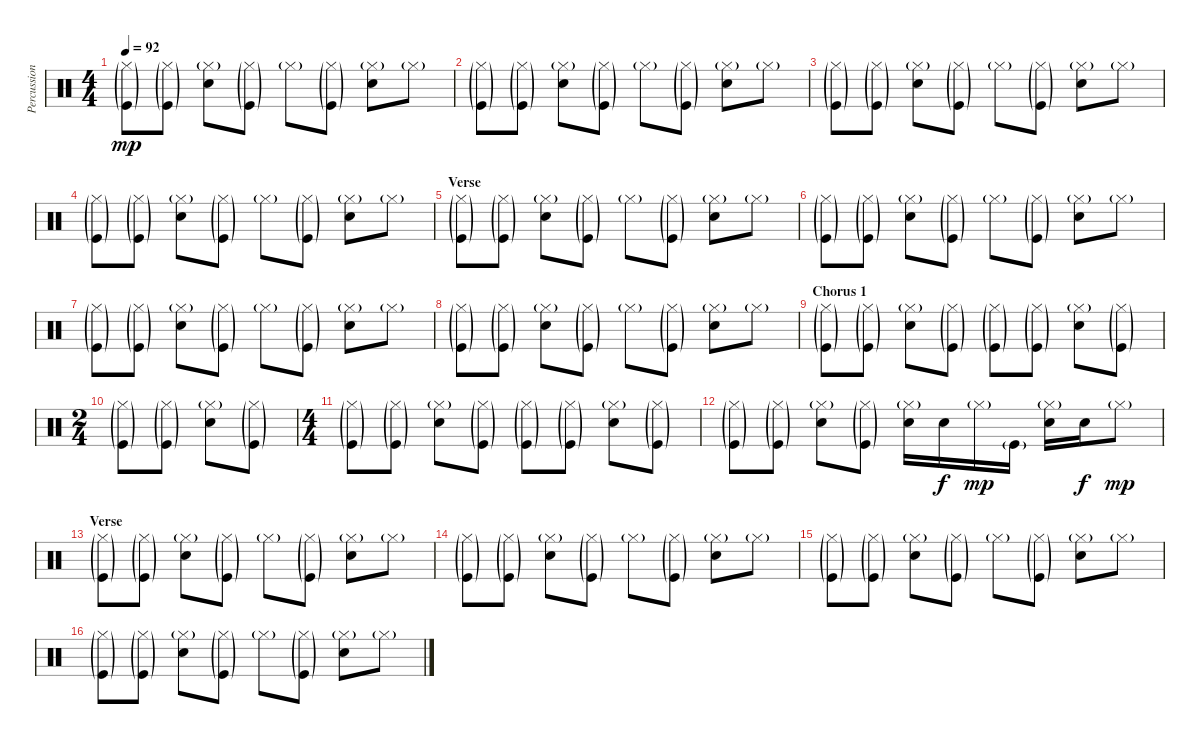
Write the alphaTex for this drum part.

\track ("Percussions" "Percussion") {instrument percussion}
\staff {score}
\articulation defaults
\ts (4 4)
\tempo 92
\clef neutral
\ks c
("Hi-Hat (closed)"{g} "Kick (hit)"{g}).8{dy mp} ("Hi-Hat (closed)"{g} "Kick (hit)"{g}).8 ("Hi-Hat (closed)"{g} "Snare (hit) 2").8 ("Hi-Hat (closed)"{g} "Kick (hit)"{g}).8 "Hi-Hat (closed)"{g}.8 ("Hi-Hat (closed)"{g} "Kick (hit)"{g}).8 ("Hi-Hat (closed)"{g} "Snare (hit) 2").8 "Hi-Hat (closed)"{g}.8 |
("Hi-Hat (closed)"{g} "Kick (hit)"{g}).8 ("Hi-Hat (closed)"{g} "Kick (hit)"{g}).8 ("Hi-Hat (closed)"{g} "Snare (hit) 2").8 ("Hi-Hat (closed)"{g} "Kick (hit)"{g}).8 "Hi-Hat (closed)"{g}.8 ("Hi-Hat (closed)"{g} "Kick (hit)"{g}).8 ("Hi-Hat (closed)"{g} "Snare (hit) 2").8 "Hi-Hat (closed)"{g}.8 |
("Hi-Hat (closed)"{g} "Kick (hit)"{g}).8 ("Hi-Hat (closed)"{g} "Kick (hit)"{g}).8 ("Hi-Hat (closed)"{g} "Snare (hit) 2").8 ("Hi-Hat (closed)"{g} "Kick (hit)"{g}).8 "Hi-Hat (closed)"{g}.8 ("Hi-Hat (closed)"{g} "Kick (hit)"{g}).8 ("Hi-Hat (closed)"{g} "Snare (hit) 2").8 "Hi-Hat (closed)"{g}.8 |
("Hi-Hat (closed)"{g} "Kick (hit)"{g}).8 ("Hi-Hat (closed)"{g} "Kick (hit)"{g}).8 ("Hi-Hat (closed)"{g} "Snare (hit) 2").8 ("Hi-Hat (closed)"{g} "Kick (hit)"{g}).8 "Hi-Hat (closed)"{g}.8 ("Hi-Hat (closed)"{g} "Kick (hit)"{g}).8 ("Hi-Hat (closed)"{g} "Snare (hit) 2").8 "Hi-Hat (closed)"{g}.8 |
\section ("" "Verse")
("Hi-Hat (closed)"{g} "Kick (hit)"{g}).8 ("Hi-Hat (closed)"{g} "Kick (hit)"{g}).8 ("Hi-Hat (closed)"{g} "Snare (hit) 2").8 ("Hi-Hat (closed)"{g} "Kick (hit)"{g}).8 "Hi-Hat (closed)"{g}.8 ("Hi-Hat (closed)"{g} "Kick (hit)"{g}).8 ("Hi-Hat (closed)"{g} "Snare (hit) 2").8 "Hi-Hat (closed)"{g}.8 |
("Hi-Hat (closed)"{g} "Kick (hit)"{g}).8 ("Hi-Hat (closed)"{g} "Kick (hit)"{g}).8 ("Hi-Hat (closed)"{g} "Snare (hit) 2").8 ("Hi-Hat (closed)"{g} "Kick (hit)"{g}).8 "Hi-Hat (closed)"{g}.8 ("Hi-Hat (closed)"{g} "Kick (hit)"{g}).8 ("Hi-Hat (closed)"{g} "Snare (hit) 2").8 "Hi-Hat (closed)"{g}.8 |
("Hi-Hat (closed)"{g} "Kick (hit)"{g}).8 ("Hi-Hat (closed)"{g} "Kick (hit)"{g}).8 ("Hi-Hat (closed)"{g} "Snare (hit) 2").8 ("Hi-Hat (closed)"{g} "Kick (hit)"{g}).8 "Hi-Hat (closed)"{g}.8 ("Hi-Hat (closed)"{g} "Kick (hit)"{g}).8 ("Hi-Hat (closed)"{g} "Snare (hit) 2").8 "Hi-Hat (closed)"{g}.8 |
("Hi-Hat (closed)"{g} "Kick (hit)"{g}).8 ("Hi-Hat (closed)"{g} "Kick (hit)"{g}).8 ("Hi-Hat (closed)"{g} "Snare (hit) 2").8 ("Hi-Hat (closed)"{g} "Kick (hit)"{g}).8 "Hi-Hat (closed)"{g}.8 ("Hi-Hat (closed)"{g} "Kick (hit)"{g}).8 ("Hi-Hat (closed)"{g} "Snare (hit) 2").8 "Hi-Hat (closed)"{g}.8 |
\section ("" "Chorus 1")
("Hi-Hat (closed)"{g} "Kick (hit)"{g}).8 ("Hi-Hat (closed)"{g} "Kick (hit)"{g}).8 ("Hi-Hat (closed)"{g} "Snare (hit) 2").8 ("Hi-Hat (closed)"{g} "Kick (hit)"{g}).8 ("Hi-Hat (closed)"{g} "Kick (hit)"{g}).8 ("Hi-Hat (closed)"{g} "Kick (hit)"{g}).8 ("Hi-Hat (closed)"{g} "Snare (hit) 2").8 ("Hi-Hat (closed)"{g} "Kick (hit)"{g}).8 |
\ts (2 4)
("Hi-Hat (closed)"{g} "Kick (hit)"{g}).8 ("Hi-Hat (closed)"{g} "Kick (hit)"{g}).8 ("Hi-Hat (closed)"{g} "Snare (hit) 2").8 ("Hi-Hat (closed)"{g} "Kick (hit)"{g}).8 |
\ts (4 4)
("Hi-Hat (closed)"{g} "Kick (hit)"{g}).8 ("Hi-Hat (closed)"{g} "Kick (hit)"{g}).8 ("Hi-Hat (closed)"{g} "Snare (hit) 2").8 ("Hi-Hat (closed)"{g} "Kick (hit)"{g}).8 ("Hi-Hat (closed)"{g} "Kick (hit)"{g}).8 ("Hi-Hat (closed)"{g} "Kick (hit)"{g}).8 ("Hi-Hat (closed)"{g} "Snare (hit) 2").8 ("Hi-Hat (closed)"{g} "Kick (hit)"{g}).8 |
("Hi-Hat (closed)"{g} "Kick (hit)"{g}).8 ("Hi-Hat (closed)"{g} "Kick (hit)"{g}).8 ("Hi-Hat (closed)"{g} "Snare (hit) 2").8 ("Hi-Hat (closed)"{g} "Kick (hit)"{g}).8 ("Hi-Hat (closed)"{g} "Snare (hit) 2").16 "Snare (hit) 2".16{dy f} "Hi-Hat (closed)"{g}.16{dy mp} "Kick (hit)"{g}.16 ("Hi-Hat (closed)"{g} "Snare (hit) 2").16 "Snare (hit) 2".16{dy f} "Hi-Hat (closed)"{g}.8{dy mp} |
\section ("" "Verse")
("Hi-Hat (closed)"{g} "Kick (hit)"{g}).8 ("Hi-Hat (closed)"{g} "Kick (hit)"{g}).8 ("Hi-Hat (closed)"{g} "Snare (hit) 2").8 ("Hi-Hat (closed)"{g} "Kick (hit)"{g}).8 "Hi-Hat (closed)"{g}.8 ("Hi-Hat (closed)"{g} "Kick (hit)"{g}).8 ("Hi-Hat (closed)"{g} "Snare (hit) 2").8 "Hi-Hat (closed)"{g}.8 |
("Hi-Hat (closed)"{g} "Kick (hit)"{g}).8 ("Hi-Hat (closed)"{g} "Kick (hit)"{g}).8 ("Hi-Hat (closed)"{g} "Snare (hit) 2").8 ("Hi-Hat (closed)"{g} "Kick (hit)"{g}).8 "Hi-Hat (closed)"{g}.8 ("Hi-Hat (closed)"{g} "Kick (hit)"{g}).8 ("Hi-Hat (closed)"{g} "Snare (hit) 2").8 "Hi-Hat (closed)"{g}.8 |
("Hi-Hat (closed)"{g} "Kick (hit)"{g}).8 ("Hi-Hat (closed)"{g} "Kick (hit)"{g}).8 ("Hi-Hat (closed)"{g} "Snare (hit) 2").8 ("Hi-Hat (closed)"{g} "Kick (hit)"{g}).8 "Hi-Hat (closed)"{g}.8 ("Hi-Hat (closed)"{g} "Kick (hit)"{g}).8 ("Hi-Hat (closed)"{g} "Snare (hit) 2").8 "Hi-Hat (closed)"{g}.8 |
("Hi-Hat (closed)"{g} "Kick (hit)"{g}).8 ("Hi-Hat (closed)"{g} "Kick (hit)"{g}).8 ("Hi-Hat (closed)"{g} "Snare (hit) 2").8 ("Hi-Hat (closed)"{g} "Kick (hit)"{g}).8 "Hi-Hat (closed)"{g}.8 ("Hi-Hat (closed)"{g} "Kick (hit)"{g}).8 ("Hi-Hat (closed)"{g} "Snare (hit) 2").8 "Hi-Hat (closed)"{g}.8
